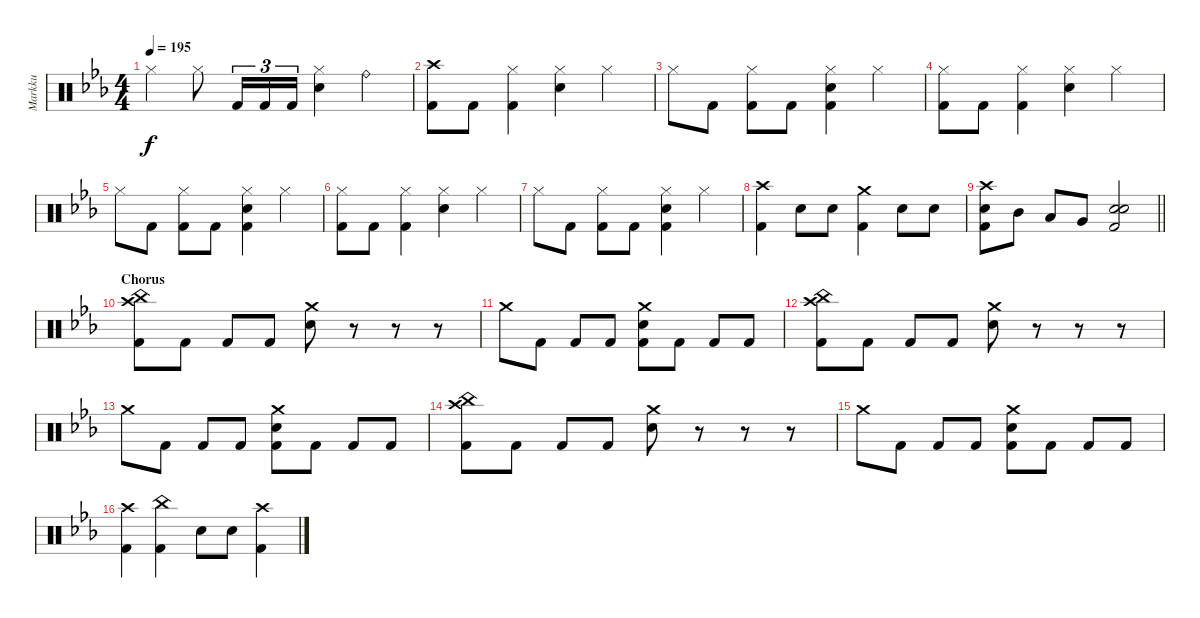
\track ("Markku" "Markku") {instrument percussion}
\staff {score}
\articulation defaults
\ts (4 4)
\tempo 195
\clef neutral
\ks cminor "Hi-Hat (closed)".4{dy f} "Hi-Hat (closed)".8 "Kick (hit) 2".16{tu (3 2)} "Kick (hit) 2".16{tu (3 2)} "Kick (hit) 2".16{tu (3 2)}
("Hi-Hat (closed)" "Snare (hit) 2").4 "Ride (bell)".4 |
("Kick (hit) 2" "Crash high (hit)").8 "Kick (hit) 2".8 ("Kick (hit) 2" "Hi-Hat (closed)").4 ("Snare (hit) 2" "Hi-Hat (closed)").4 "Hi-Hat (closed)".4 |
"Hi-Hat (closed)".8 "Kick (hit) 2".8 ("Kick (hit) 2" "Hi-Hat (closed)").8 "Kick (hit) 2".8 ("Kick (hit) 2" "Snare (hit) 2" "Hi-Hat (closed)").4 "Hi-Hat (closed)".4 |
("Kick (hit) 2" "Hi-Hat (closed)").8 "Kick (hit) 2".8 ("Kick (hit) 2" "Hi-Hat (closed)").4 ("Snare (hit) 2" "Hi-Hat (closed)").4 "Hi-Hat (closed)".4 |
"Hi-Hat (closed)".8 "Kick (hit) 2".8 ("Kick (hit) 2" "Hi-Hat (closed)").8 "Kick (hit) 2".8 ("Kick (hit) 2" "Snare (hit) 2" "Hi-Hat (closed)").4 "Hi-Hat (closed)".4 |
("Kick (hit) 2" "Hi-Hat (closed)").8 "Kick (hit) 2".8 ("Kick (hit) 2" "Hi-Hat (closed)").4 ("Snare (hit) 2" "Hi-Hat (closed)").4 "Hi-Hat (closed)".4 |
"Hi-Hat (closed)".8 "Kick (hit) 2".8 ("Kick (hit) 2" "Hi-Hat (closed)").8 "Kick (hit) 2".8 ("Kick (hit) 2" "Snare (hit) 2" "Hi-Hat (closed)").4 "Hi-Hat (closed)".4 |
("Crash high (hit)" "Kick (hit) 2").4 "Snare (hit) 2".8 "Snare (hit) 2".8 ("Crash medium (hit)" "Kick (hit) 2").4 "Snare (hit) 2".8 "Snare (hit) 2".8 |
\barLineRight lightlight
("Kick (hit) 2" "Crash high (hit)" "Snare (hit) 2").8 "Mid Tom (hit)".8 "Low Tom (hit)".8 "Very Low Tom (hit)".8 ("Electric Snare (hit)" "Snare (hit) 2" "Kick (hit) 2").2 |
\section ("" "Chorus")
("Kick (hit) 2" "Crash high (hit)" "China (hit)").8 "Kick (hit) 2".8 "Kick (hit) 2".8 "Kick (hit) 2".8 ("Snare (hit) 2" "Crash medium (hit)").8 r.8 r.8 r.8 |
"Crash medium (hit)".8 "Kick (hit) 2".8 "Kick (hit) 2".8 "Kick (hit) 2".8 ("Kick (hit) 2" "Crash medium (hit)" "Snare (hit) 2").8 "Kick (hit) 2".8 "Kick (hit) 2".8 "Kick (hit) 2".8 |
("Kick (hit) 2" "Crash high (hit)" "China (hit)").8 "Kick (hit) 2".8 "Kick (hit) 2".8 "Kick (hit) 2".8 ("Snare (hit) 2" "Crash medium (hit)").8 r.8 r.8 r.8 |
"Crash medium (hit)".8 "Kick (hit) 2".8 "Kick (hit) 2".8 "Kick (hit) 2".8 ("Kick (hit) 2" "Crash medium (hit)" "Snare (hit) 2").8 "Kick (hit) 2".8 "Kick (hit) 2".8 "Kick (hit) 2".8 |
("Kick (hit) 2" "Crash high (hit)" "China (hit)").8 "Kick (hit) 2".8 "Kick (hit) 2".8 "Kick (hit) 2".8 ("Snare (hit) 2" "Crash medium (hit)").8 r.8 r.8 r.8 |
"Crash medium (hit)".8 "Kick (hit) 2".8 "Kick (hit) 2".8 "Kick (hit) 2".8 ("Kick (hit) 2" "Crash medium (hit)" "Snare (hit) 2").8 "Kick (hit) 2".8 "Kick (hit) 2".8 "Kick (hit) 2".8 |
("Kick (hit) 2" "Crash high (hit)").4 ("Kick (hit) 2" "China (hit)").4 "Snare (hit) 2".8 "Snare (hit) 2".8 ("Kick (hit) 2" "Crash high (hit)").4
